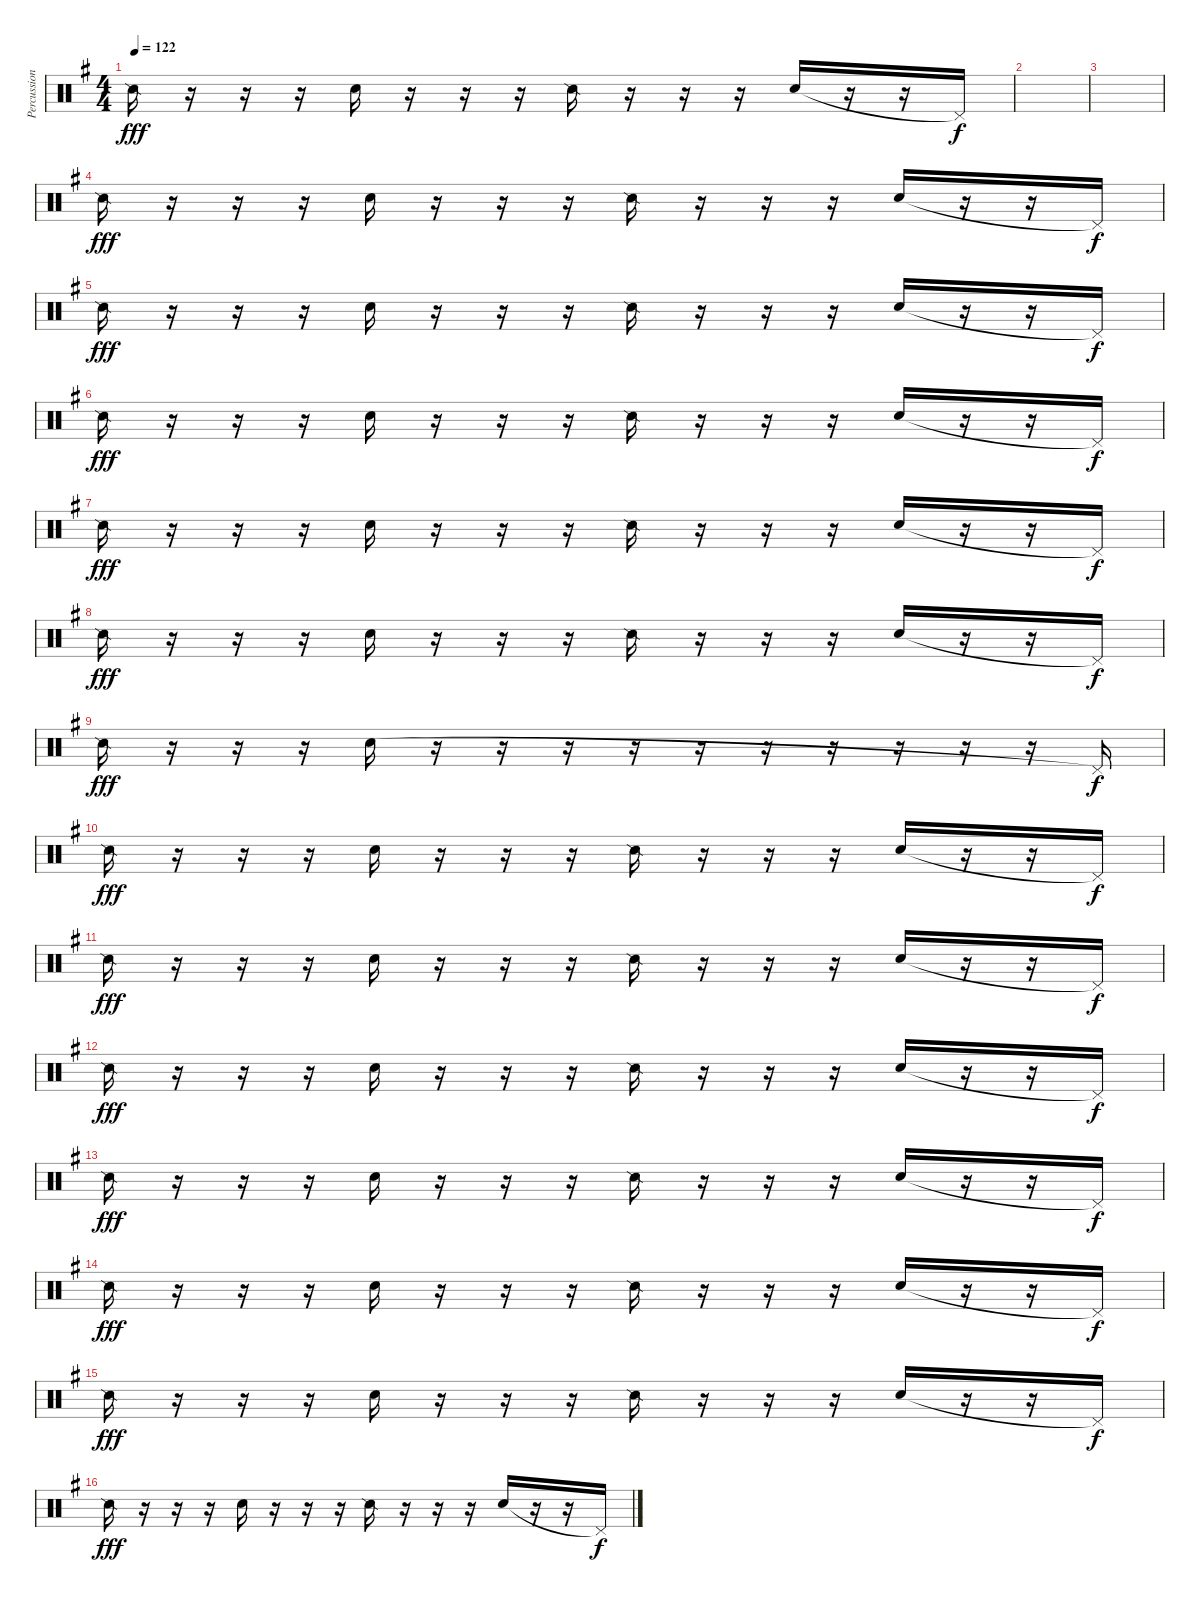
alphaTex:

\track ("Percussion" "Percussion") {instrument percussion}
\staff {score}
\articulation defaults
\ts (4 4)
\tempo 122
\clef neutral
\ks g "Snare (side stick) 2".16{dy fff}
r.16 r.16 r.16 "Hand Clap (hit)".16 r.16 r.16 r.16 "Snare (side stick) 2".16 r.16 r.16 r.16 "Hand Clap (hit)".16 r.16 r.16 "Pedal Hi-Hat (hit)"{t}.16{dy f} |
|
|
"Snare (side stick) 2".16{dy fff} r.16 r.16 r.16 "Hand Clap (hit)".16 r.16 r.16 r.16 "Snare (side stick) 2".16 r.16 r.16 r.16 "Hand Clap (hit)".16 r.16 r.16 "Pedal Hi-Hat (hit)"{t}.16{dy f} |
"Snare (side stick) 2".16{dy fff} r.16 r.16 r.16 "Hand Clap (hit)".16 r.16 r.16 r.16 "Snare (side stick) 2".16 r.16 r.16 r.16 "Hand Clap (hit)".16 r.16 r.16 "Pedal Hi-Hat (hit)"{t}.16{dy f} |
"Snare (side stick) 2".16{dy fff} r.16 r.16 r.16 "Hand Clap (hit)".16 r.16 r.16 r.16 "Snare (side stick) 2".16 r.16 r.16 r.16 "Hand Clap (hit)".16 r.16 r.16 "Pedal Hi-Hat (hit)"{t}.16{dy f} |
"Snare (side stick) 2".16{dy fff} r.16 r.16 r.16 "Hand Clap (hit)".16 r.16 r.16 r.16 "Snare (side stick) 2".16 r.16 r.16 r.16 "Hand Clap (hit)".16 r.16 r.16 "Pedal Hi-Hat (hit)"{t}.16{dy f} |
"Snare (side stick) 2".16{dy fff} r.16 r.16 r.16 "Hand Clap (hit)".16 r.16 r.16 r.16 "Snare (side stick) 2".16 r.16 r.16 r.16 "Hand Clap (hit)".16 r.16 r.16 "Pedal Hi-Hat (hit)"{t}.16{dy f} |
"Snare (side stick) 2".16{dy fff} r.16 r.16 r.16 "Hand Clap (hit)".16 r.16 r.16 r.16 r.16 r.16 r.16 r.16 r.16 r.16 r.16 "Pedal Hi-Hat (hit)"{t}.16{dy f} |
"Snare (side stick) 2".16{dy fff} r.16 r.16 r.16 "Hand Clap (hit)".16 r.16 r.16 r.16 "Snare (side stick) 2".16 r.16 r.16 r.16 "Hand Clap (hit)".16 r.16 r.16 "Pedal Hi-Hat (hit)"{t}.16{dy f} |
"Snare (side stick) 2".16{dy fff} r.16 r.16 r.16 "Hand Clap (hit)".16 r.16 r.16 r.16 "Snare (side stick) 2".16 r.16 r.16 r.16 "Hand Clap (hit)".16 r.16 r.16 "Pedal Hi-Hat (hit)"{t}.16{dy f} |
"Snare (side stick) 2".16{dy fff} r.16 r.16 r.16 "Hand Clap (hit)".16 r.16 r.16 r.16 "Snare (side stick) 2".16 r.16 r.16 r.16 "Hand Clap (hit)".16 r.16 r.16 "Pedal Hi-Hat (hit)"{t}.16{dy f} |
"Snare (side stick) 2".16{dy fff} r.16 r.16 r.16 "Hand Clap (hit)".16 r.16 r.16 r.16 "Snare (side stick) 2".16 r.16 r.16 r.16 "Hand Clap (hit)".16 r.16 r.16 "Pedal Hi-Hat (hit)"{t}.16{dy f} |
"Snare (side stick) 2".16{dy fff} r.16 r.16 r.16 "Hand Clap (hit)".16 r.16 r.16 r.16 "Snare (side stick) 2".16 r.16 r.16 r.16 "Hand Clap (hit)".16 r.16 r.16 "Pedal Hi-Hat (hit)"{t}.16{dy f} |
"Snare (side stick) 2".16{dy fff} r.16 r.16 r.16 "Hand Clap (hit)".16 r.16 r.16 r.16 "Snare (side stick) 2".16 r.16 r.16 r.16 "Hand Clap (hit)".16 r.16 r.16 "Pedal Hi-Hat (hit)"{t}.16{dy f} |
"Snare (side stick) 2".16{dy fff} r.16 r.16 r.16 "Hand Clap (hit)".16 r.16 r.16 r.16 "Snare (side stick) 2".16 r.16 r.16 r.16 "Hand Clap (hit)".16 r.16 r.16 "Pedal Hi-Hat (hit)"{t}.16{dy f}
